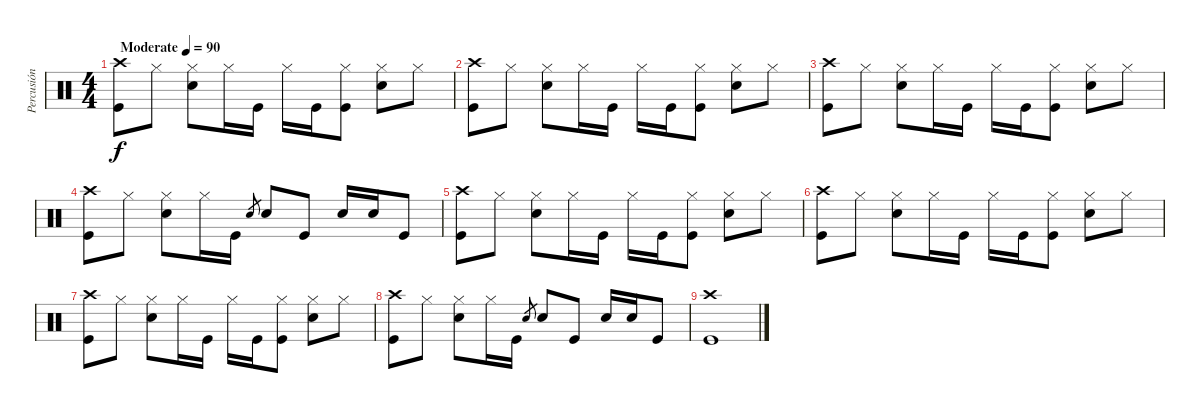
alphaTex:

\track ("Percusión" "Percusión") {instrument percussion}
\staff {score}
\articulation defaults
\ts (4 4)
\tempo (90 "Moderate")
\clef neutral
\ks c
("Crash high (hit)" "Kick (hit)").8{dy f} "Hi-Hat (closed)".8 ("Hi-Hat (closed)" "Snare (hit) 2").8 "Hi-Hat (closed)".16 "Kick (hit)".16 "Hi-Hat (closed)".16 "Kick (hit)".16 ("Hi-Hat (closed)" "Kick (hit)").8 ("Hi-Hat (closed)" "Snare (hit) 2").8 "Hi-Hat (closed)".8 |
("Crash high (hit)" "Kick (hit)").8 "Hi-Hat (closed)".8 ("Hi-Hat (closed)" "Snare (hit) 2").8 "Hi-Hat (closed)".16 "Kick (hit)".16 "Hi-Hat (closed)".16 "Kick (hit)".16 ("Hi-Hat (closed)" "Kick (hit)").8 ("Hi-Hat (closed)" "Snare (hit) 2").8 "Hi-Hat (closed)".8 |
("Crash high (hit)" "Kick (hit)").8 "Hi-Hat (closed)".8 ("Hi-Hat (closed)" "Snare (hit) 2").8 "Hi-Hat (closed)".16 "Kick (hit)".16 "Hi-Hat (closed)".16 "Kick (hit)".16 ("Hi-Hat (closed)" "Kick (hit)").8 ("Hi-Hat (closed)" "Snare (hit) 2").8 "Hi-Hat (closed)".8 |
("Crash high (hit)" "Kick (hit)").8 "Hi-Hat (closed)".8 ("Hi-Hat (closed)" "Snare (hit) 2").8 "Hi-Hat (closed)".16 "Kick (hit)".16 "Snare (hit) 2".8{gr} "Snare (hit) 2".8 "Kick (hit)".8 "Snare (hit) 2".16 "Snare (hit) 2".16 "Kick (hit)".8 |
("Crash high (hit)" "Kick (hit)").8 "Hi-Hat (closed)".8 ("Hi-Hat (closed)" "Snare (hit) 2").8 "Hi-Hat (closed)".16 "Kick (hit)".16 "Hi-Hat (closed)".16 "Kick (hit)".16 ("Hi-Hat (closed)" "Kick (hit)").8 ("Hi-Hat (closed)" "Snare (hit) 2").8 "Hi-Hat (closed)".8 |
("Crash high (hit)" "Kick (hit)").8 "Hi-Hat (closed)".8 ("Hi-Hat (closed)" "Snare (hit) 2").8 "Hi-Hat (closed)".16 "Kick (hit)".16 "Hi-Hat (closed)".16 "Kick (hit)".16 ("Hi-Hat (closed)" "Kick (hit)").8 ("Hi-Hat (closed)" "Snare (hit) 2").8 "Hi-Hat (closed)".8 |
("Crash high (hit)" "Kick (hit)").8 "Hi-Hat (closed)".8 ("Hi-Hat (closed)" "Snare (hit) 2").8 "Hi-Hat (closed)".16 "Kick (hit)".16 "Hi-Hat (closed)".16 "Kick (hit)".16 ("Hi-Hat (closed)" "Kick (hit)").8 ("Hi-Hat (closed)" "Snare (hit) 2").8 "Hi-Hat (closed)".8 |
("Crash high (hit)" "Kick (hit)").8 "Hi-Hat (closed)".8 ("Hi-Hat (closed)" "Snare (hit) 2").8 "Hi-Hat (closed)".16 "Kick (hit)".16 "Snare (hit) 2".8{gr} "Snare (hit) 2".8 "Kick (hit)".8 "Snare (hit) 2".16 "Snare (hit) 2".16 "Kick (hit)".8 |
("Crash high (hit)" "Kick (hit)").1
